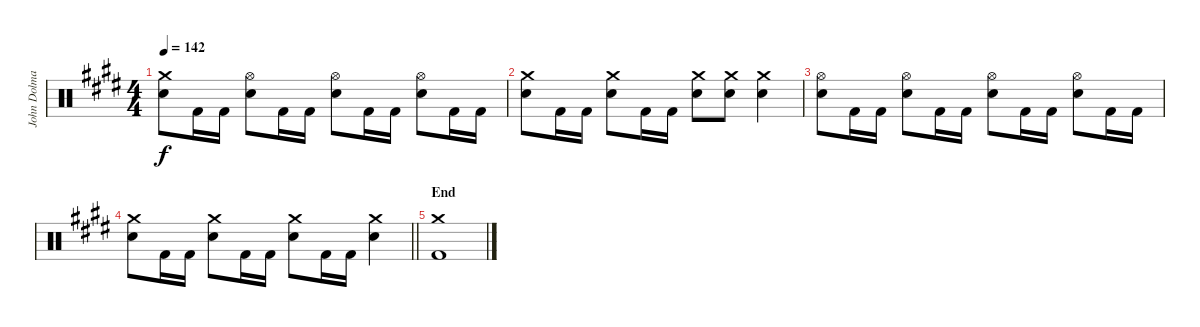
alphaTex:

\track ("John Dolmayan [Drums]" "John Dolma") {instrument percussion}
\staff {score}
\articulation defaults
\ts (4 4)
\tempo 142
\clef neutral
\ks c#minor
("Crash medium (hit)" "Electric Snare (hit)").8{dy f} "Kick (hit) 2".16 "Kick (hit) 2".16 ("Hi-Hat (open)" "Electric Snare (hit)").8 "Kick (hit) 2".16 "Kick (hit) 2".16 ("Hi-Hat (open)" "Electric Snare (hit)").8 "Kick (hit) 2".16 "Kick (hit) 2".16 ("Hi-Hat (open)" "Electric Snare (hit)").8 "Kick (hit) 2".16 "Kick (hit) 2".16 |
("Crash medium (hit)" "Electric Snare (hit)").8 "Kick (hit) 2".16 "Kick (hit) 2".16 ("Crash medium (hit)" "Electric Snare (hit)").8 "Kick (hit) 2".16 "Kick (hit) 2".16 ("Crash medium (hit)" "Electric Snare (hit)").8 ("Crash medium (hit)" "Electric Snare (hit)").8 ("Crash medium (hit)" "Electric Snare (hit)").4 |
("Hi-Hat (open)" "Electric Snare (hit)").8 "Kick (hit) 2".16 "Kick (hit) 2".16 ("Hi-Hat (open)" "Electric Snare (hit)").8 "Kick (hit) 2".16 "Kick (hit) 2".16 ("Hi-Hat (open)" "Electric Snare (hit)").8 "Kick (hit) 2".16 "Kick (hit) 2".16 ("Hi-Hat (open)" "Electric Snare (hit)").8 "Kick (hit) 2".16 "Kick (hit) 2".16 |
\barLineRight lightlight
("Crash medium (hit)" "Electric Snare (hit)").8 "Kick (hit) 2".16 "Kick (hit) 2".16 ("Crash medium (hit)" "Electric Snare (hit)").8 "Kick (hit) 2".16 "Kick (hit) 2".16 ("Crash medium (hit)" "Electric Snare (hit)").8 "Kick (hit) 2".16 "Kick (hit) 2".16 ("Crash medium (hit)" "Electric Snare (hit)").4 |
\section ("" "End")
("Crash medium (hit)" "Kick (hit) 2").1
